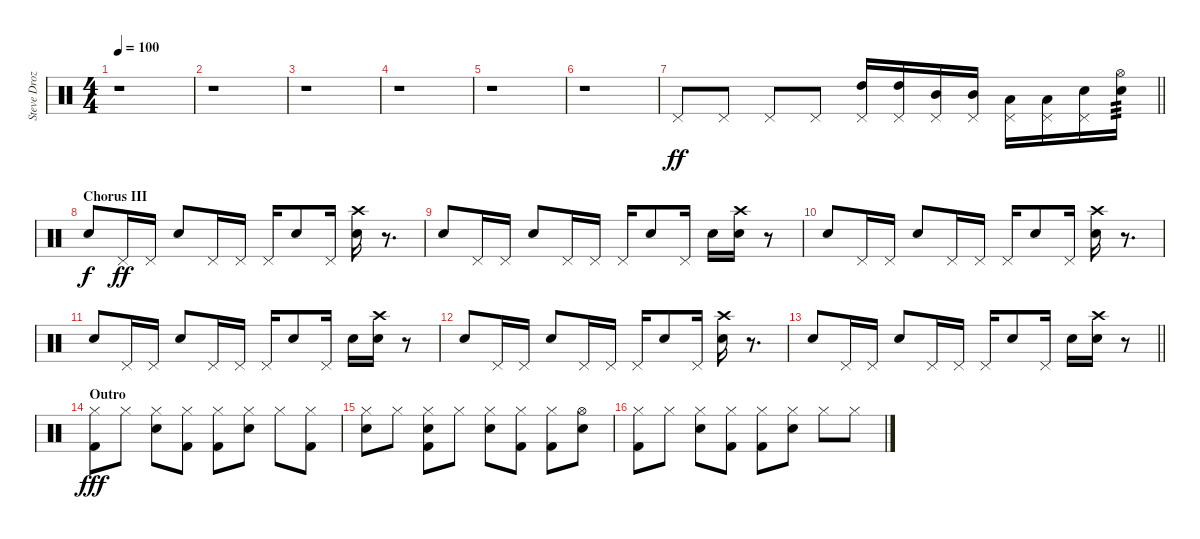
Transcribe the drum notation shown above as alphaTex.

\track ("Steve Drozd" "Steve Droz") {instrument percussion}
\staff {score}
\articulation defaults
\ts (4 4)
\tempo 100
\clef neutral
\ks c
r.1{dy fff} |
r.1 |
r.1 |
r.1 |
r.1 |
r.1 |
\barLineRight lightlight "Pedal Hi-Hat (hit)".8{dy ff} "Pedal Hi-Hat (hit)".8 "Pedal Hi-Hat (hit)".8 "Pedal Hi-Hat (hit)".8
("High Tom (hit)" "Pedal Hi-Hat (hit)").16 ("High Tom (hit)" "Pedal Hi-Hat (hit)").16 ("Mid Tom (hit)" "Pedal Hi-Hat (hit)").16 ("Mid Tom (hit)" "Pedal Hi-Hat (hit)").16 ("Low Tom (hit)" "Pedal Hi-Hat (hit)").16 ("Low Tom (hit)" "Pedal Hi-Hat (hit)").16 ("Electric Snare (hit)" "Pedal Hi-Hat (hit)").16 ("Electric Snare (hit)" "Hi-Hat (open)").16{tp 3} |
\section ("" "Chorus III")
"Snare (hit) 2".8{dy f} "Pedal Hi-Hat (hit)".16{dy ff} "Pedal Hi-Hat (hit)".16 "Snare (hit) 2".8 "Pedal Hi-Hat (hit)".16 "Pedal Hi-Hat (hit)".16 "Pedal Hi-Hat (hit)".16 "Snare (hit) 2".8 "Pedal Hi-Hat (hit)".16 ("Crash high (hit)" "Snare (hit) 2").16 r.8{d} |
"Snare (hit) 2".8 "Pedal Hi-Hat (hit)".16 "Pedal Hi-Hat (hit)".16 "Snare (hit) 2".8 "Pedal Hi-Hat (hit)".16 "Pedal Hi-Hat (hit)".16 "Pedal Hi-Hat (hit)".16 "Snare (hit) 2".8 "Pedal Hi-Hat (hit)".16 "Snare (hit) 2".16 ("Crash high (hit)" "Snare (hit) 2").16 r.8 |
"Snare (hit) 2".8 "Pedal Hi-Hat (hit)".16 "Pedal Hi-Hat (hit)".16 "Snare (hit) 2".8 "Pedal Hi-Hat (hit)".16 "Pedal Hi-Hat (hit)".16 "Pedal Hi-Hat (hit)".16 "Snare (hit) 2".8 "Pedal Hi-Hat (hit)".16 ("Crash high (hit)" "Snare (hit) 2").16 r.8{d} |
"Snare (hit) 2".8 "Pedal Hi-Hat (hit)".16 "Pedal Hi-Hat (hit)".16 "Snare (hit) 2".8 "Pedal Hi-Hat (hit)".16 "Pedal Hi-Hat (hit)".16 "Pedal Hi-Hat (hit)".16 "Snare (hit) 2".8 "Pedal Hi-Hat (hit)".16 "Snare (hit) 2".16 ("Crash high (hit)" "Snare (hit) 2").16 r.8 |
"Snare (hit) 2".8 "Pedal Hi-Hat (hit)".16 "Pedal Hi-Hat (hit)".16 "Snare (hit) 2".8 "Pedal Hi-Hat (hit)".16 "Pedal Hi-Hat (hit)".16 "Pedal Hi-Hat (hit)".16 "Snare (hit) 2".8 "Pedal Hi-Hat (hit)".16 ("Crash high (hit)" "Snare (hit) 2").16 r.8{d} |
\barLineRight lightlight "Snare (hit) 2".8 "Pedal Hi-Hat (hit)".16 "Pedal Hi-Hat (hit)".16 "Snare (hit) 2".8 "Pedal Hi-Hat (hit)".16 "Pedal Hi-Hat (hit)".16 "Pedal Hi-Hat (hit)".16 "Snare (hit) 2".8 "Pedal Hi-Hat (hit)".16 "Snare (hit) 2".16
("Crash high (hit)" "Snare (hit) 2").16 r.8 |
\section ("" "Outro")
("Kick (hit) 2" "Hi-Hat (closed)").8{dy fff} "Hi-Hat (closed)".8 ("Electric Snare (hit)" "Hi-Hat (closed)").8 ("Kick (hit) 2" "Hi-Hat (closed)").8 ("Kick (hit) 2" "Hi-Hat (closed)").8 ("Electric Snare (hit)" "Hi-Hat (closed)").8 "Hi-Hat (closed)".8 ("Kick (hit) 2" "Hi-Hat (closed)").8 |
("Electric Snare (hit)" "Hi-Hat (closed)").8 "Hi-Hat (closed)".8 ("Kick (hit) 2" "Electric Snare (hit)" "Hi-Hat (closed)").8 "Hi-Hat (closed)".8 ("Electric Snare (hit)" "Hi-Hat (closed)").8 ("Kick (hit) 2" "Hi-Hat (closed)").8 ("Kick (hit) 2" "Hi-Hat (closed)").8 ("Electric Snare (hit)" "Hi-Hat (open)").8 |
("Kick (hit) 2" "Hi-Hat (closed)").8 "Hi-Hat (closed)".8 ("Electric Snare (hit)" "Hi-Hat (closed)").8 ("Kick (hit) 2" "Hi-Hat (closed)").8 ("Kick (hit) 2" "Hi-Hat (closed)").8 ("Electric Snare (hit)" "Hi-Hat (closed)").8 "Hi-Hat (closed)".8 "Hi-Hat (closed)".8
